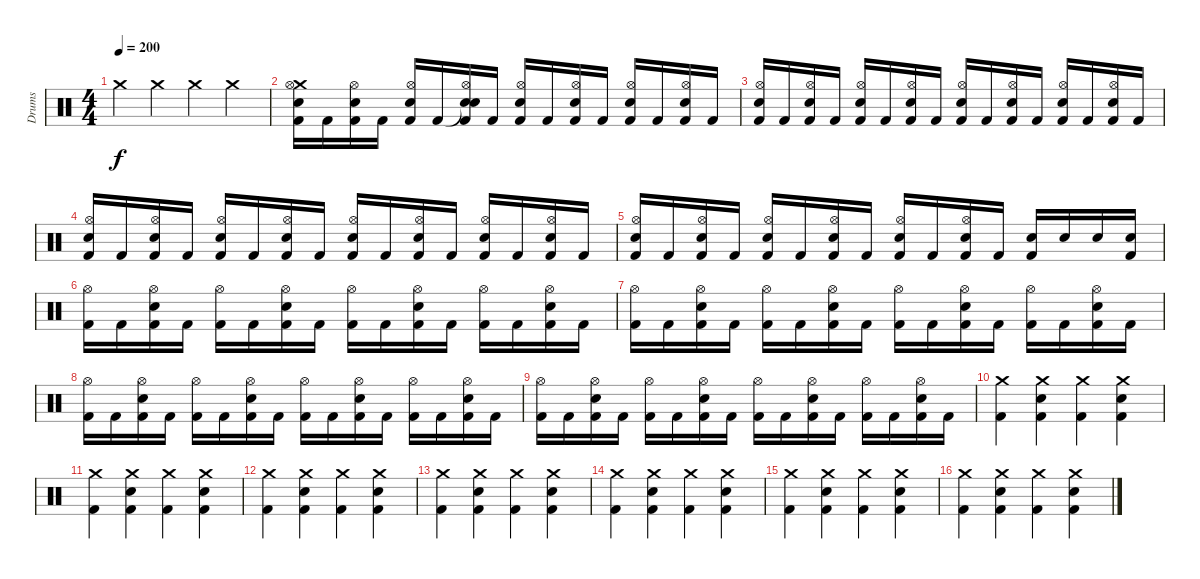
\track ("Drums" "Drums") {instrument percussion}
\staff {score}
\articulation defaults
\ts (4 4)
\tempo 200
\clef neutral
\ks c "Crash medium (hit)".4{dy f} "Crash medium (hit)".4 "Crash medium (hit)".4 "Crash medium (hit)".4
|
("Crash medium (hit)" "Snare (hit) 2" "Hi-Hat (open)" "Kick (hit) 2").16 "Kick (hit) 2".16 ("Snare (hit) 2" "Hi-Hat (open)" "Kick (hit) 2").16 "Kick (hit) 2".16 ("Snare (hit) 2" "Hi-Hat (open)" "Kick (hit) 2").16 "Kick (hit) 2".16 ("Snare (hit)"{t} "Snare (hit) 2" "Hi-Hat (open)" "Kick (hit) 2").16 "Kick (hit) 2".16 ("Snare (hit) 2" "Hi-Hat (open)" "Kick (hit) 2").16 "Kick (hit) 2".16 ("Snare (hit) 2" "Hi-Hat (open)" "Kick (hit) 2").16 "Kick (hit) 2".16 ("Snare (hit) 2" "Hi-Hat (open)" "Kick (hit) 2").16 "Kick (hit) 2".16 ("Snare (hit) 2" "Hi-Hat (open)" "Kick (hit) 2").16 "Kick (hit) 2".16 |
("Snare (hit) 2" "Hi-Hat (open)" "Kick (hit) 2").16 "Kick (hit) 2".16 ("Snare (hit) 2" "Hi-Hat (open)" "Kick (hit) 2").16 "Kick (hit) 2".16 ("Snare (hit) 2" "Hi-Hat (open)" "Kick (hit) 2").16 "Kick (hit) 2".16 ("Snare (hit) 2" "Hi-Hat (open)" "Kick (hit) 2").16 "Kick (hit) 2".16 ("Snare (hit) 2" "Hi-Hat (open)" "Kick (hit) 2").16 "Kick (hit) 2".16 ("Snare (hit) 2" "Hi-Hat (open)" "Kick (hit) 2").16 "Kick (hit) 2".16 ("Snare (hit) 2" "Hi-Hat (open)" "Kick (hit) 2").16 "Kick (hit) 2".16 ("Snare (hit) 2" "Hi-Hat (open)" "Kick (hit) 2").16 "Kick (hit) 2".16 |
("Snare (hit) 2" "Hi-Hat (open)" "Kick (hit) 2").16 "Kick (hit) 2".16 ("Snare (hit) 2" "Hi-Hat (open)" "Kick (hit) 2").16 "Kick (hit) 2".16 ("Snare (hit) 2" "Hi-Hat (open)" "Kick (hit) 2").16 "Kick (hit) 2".16 ("Snare (hit) 2" "Hi-Hat (open)" "Kick (hit) 2").16 "Kick (hit) 2".16 ("Snare (hit) 2" "Hi-Hat (open)" "Kick (hit) 2").16 "Kick (hit) 2".16 ("Snare (hit) 2" "Hi-Hat (open)" "Kick (hit) 2").16 "Kick (hit) 2".16 ("Snare (hit) 2" "Hi-Hat (open)" "Kick (hit) 2").16 "Kick (hit) 2".16 ("Snare (hit) 2" "Hi-Hat (open)" "Kick (hit) 2").16 "Kick (hit) 2".16 |
("Snare (hit) 2" "Hi-Hat (open)" "Kick (hit) 2").16 "Kick (hit) 2".16 ("Snare (hit) 2" "Hi-Hat (open)" "Kick (hit) 2").16 "Kick (hit) 2".16 ("Snare (hit) 2" "Hi-Hat (open)" "Kick (hit) 2").16 "Kick (hit) 2".16 ("Snare (hit) 2" "Hi-Hat (open)" "Kick (hit) 2").16 "Kick (hit) 2".16 ("Snare (hit) 2" "Hi-Hat (open)" "Kick (hit) 2").16 "Kick (hit) 2".16 ("Snare (hit) 2" "Hi-Hat (open)" "Kick (hit) 2").16 "Kick (hit) 2".16 ("Snare (hit) 2" "Kick (hit) 2").16 "Snare (hit) 2".16 "Snare (hit) 2".16 ("Snare (hit) 2" "Kick (hit) 2").16 |
("Hi-Hat (open)" "Kick (hit) 2").16 "Kick (hit) 2".16 ("Snare (hit) 2" "Hi-Hat (open)" "Kick (hit) 2").16 "Kick (hit) 2".16 ("Hi-Hat (open)" "Kick (hit) 2").16 "Kick (hit) 2".16 ("Snare (hit) 2" "Hi-Hat (open)" "Kick (hit) 2").16 "Kick (hit) 2".16 ("Hi-Hat (open)" "Kick (hit) 2").16 "Kick (hit) 2".16 ("Snare (hit) 2" "Hi-Hat (open)" "Kick (hit) 2").16 "Kick (hit) 2".16 ("Hi-Hat (open)" "Kick (hit) 2").16 "Kick (hit) 2".16 ("Snare (hit) 2" "Hi-Hat (open)" "Kick (hit) 2").16 "Kick (hit) 2".16 |
("Hi-Hat (open)" "Kick (hit) 2").16 "Kick (hit) 2".16 ("Snare (hit) 2" "Hi-Hat (open)" "Kick (hit) 2").16 "Kick (hit) 2".16 ("Hi-Hat (open)" "Kick (hit) 2").16 "Kick (hit) 2".16 ("Snare (hit) 2" "Hi-Hat (open)" "Kick (hit) 2").16 "Kick (hit) 2".16 ("Hi-Hat (open)" "Kick (hit) 2").16 "Kick (hit) 2".16 ("Snare (hit) 2" "Hi-Hat (open)" "Kick (hit) 2").16 "Kick (hit) 2".16 ("Hi-Hat (open)" "Kick (hit) 2").16 "Kick (hit) 2".16 ("Snare (hit) 2" "Hi-Hat (open)" "Kick (hit) 2").16 "Kick (hit) 2".16 |
("Hi-Hat (open)" "Kick (hit) 2").16 "Kick (hit) 2".16 ("Snare (hit) 2" "Hi-Hat (open)" "Kick (hit) 2").16 "Kick (hit) 2".16 ("Hi-Hat (open)" "Kick (hit) 2").16 "Kick (hit) 2".16 ("Snare (hit) 2" "Hi-Hat (open)" "Kick (hit) 2").16 "Kick (hit) 2".16 ("Hi-Hat (open)" "Kick (hit) 2").16 "Kick (hit) 2".16 ("Snare (hit) 2" "Hi-Hat (open)" "Kick (hit) 2").16 "Kick (hit) 2".16 ("Hi-Hat (open)" "Kick (hit) 2").16 "Kick (hit) 2".16 ("Snare (hit) 2" "Hi-Hat (open)" "Kick (hit) 2").16 "Kick (hit) 2".16 |
("Hi-Hat (open)" "Kick (hit) 2").16 "Kick (hit) 2".16 ("Snare (hit) 2" "Hi-Hat (open)" "Kick (hit) 2").16 "Kick (hit) 2".16 ("Hi-Hat (open)" "Kick (hit) 2").16 "Kick (hit) 2".16 ("Snare (hit) 2" "Hi-Hat (open)" "Kick (hit) 2").16 "Kick (hit) 2".16 ("Hi-Hat (open)" "Kick (hit) 2").16 "Kick (hit) 2".16 ("Snare (hit) 2" "Hi-Hat (open)" "Kick (hit) 2").16 "Kick (hit) 2".16 ("Hi-Hat (open)" "Kick (hit) 2").16 "Kick (hit) 2".16 ("Snare (hit) 2" "Hi-Hat (open)" "Kick (hit) 2").16 "Kick (hit) 2".16 |
("Crash medium (hit)" "Kick (hit) 2").4 ("Crash medium (hit)" "Snare (hit) 2" "Kick (hit) 2").4 ("Crash medium (hit)" "Kick (hit) 2").4 ("Crash medium (hit)" "Snare (hit) 2" "Kick (hit) 2").4 |
("Crash medium (hit)" "Kick (hit) 2").4 ("Crash medium (hit)" "Snare (hit) 2" "Kick (hit) 2").4 ("Crash medium (hit)" "Kick (hit) 2").4 ("Crash medium (hit)" "Snare (hit) 2" "Kick (hit) 2").4 |
("Crash medium (hit)" "Kick (hit) 2").4 ("Crash medium (hit)" "Snare (hit) 2" "Kick (hit) 2").4 ("Crash medium (hit)" "Kick (hit) 2").4 ("Crash medium (hit)" "Snare (hit) 2" "Kick (hit) 2").4 |
("Crash medium (hit)" "Kick (hit) 2").4 ("Crash medium (hit)" "Snare (hit) 2" "Kick (hit) 2").4 ("Crash medium (hit)" "Kick (hit) 2").4 ("Crash medium (hit)" "Snare (hit) 2" "Kick (hit) 2").4 |
("Crash medium (hit)" "Kick (hit) 2").4 ("Crash medium (hit)" "Snare (hit) 2" "Kick (hit) 2").4 ("Crash medium (hit)" "Kick (hit) 2").4 ("Crash medium (hit)" "Snare (hit) 2" "Kick (hit) 2").4 |
("Crash medium (hit)" "Kick (hit) 2").4 ("Crash medium (hit)" "Snare (hit) 2" "Kick (hit) 2").4 ("Crash medium (hit)" "Kick (hit) 2").4 ("Crash medium (hit)" "Snare (hit) 2" "Kick (hit) 2").4 |
("Crash medium (hit)" "Kick (hit) 2").4 ("Crash medium (hit)" "Snare (hit) 2" "Kick (hit) 2").4 ("Crash medium (hit)" "Kick (hit) 2").4 ("Crash medium (hit)" "Snare (hit) 2" "Kick (hit) 2").4
